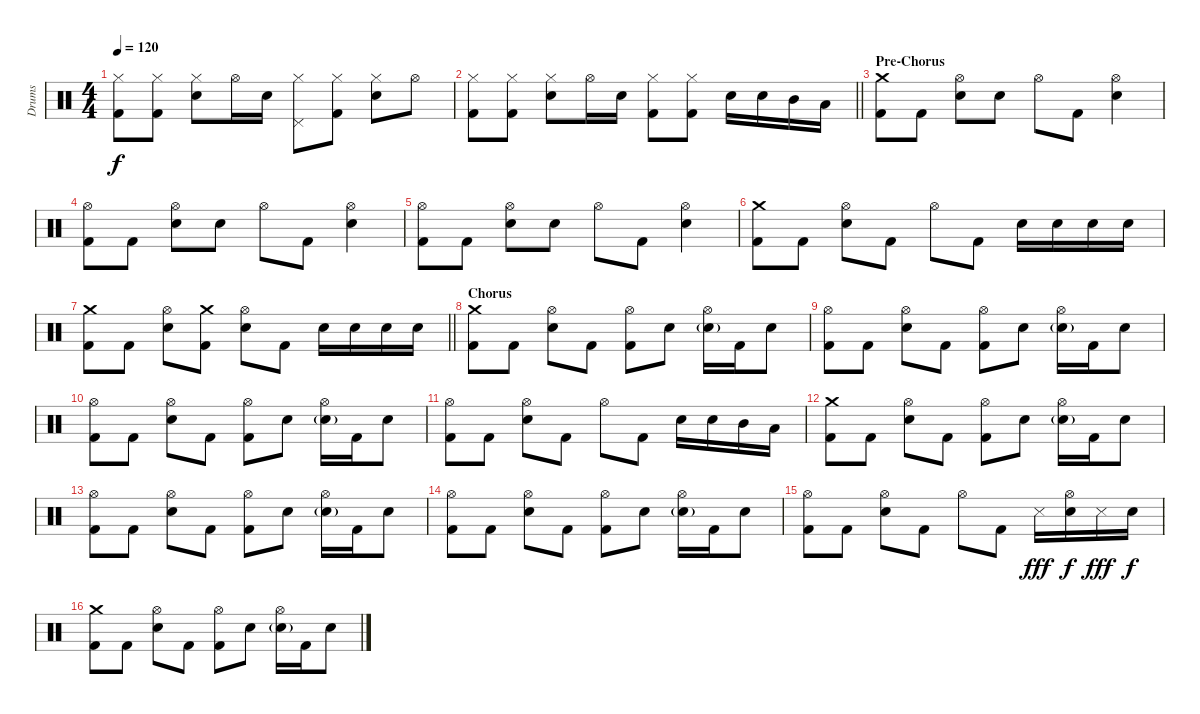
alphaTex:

\track ("Drums" "Drums") {instrument percussion}
\staff {score}
\articulation defaults
\ts (4 4)
\tempo 120
\clef neutral
\ks c
("Hi-Hat (closed)" "Kick (hit) 2").8{dy f} ("Hi-Hat (closed)" "Kick (hit) 2").8 ("Hi-Hat (closed)" "Electric Snare (hit)").8 "Hi-Hat (open)".16 "Electric Snare (hit)".16 ("Hi-Hat (closed)" "Pedal Hi-Hat (hit)").8 ("Hi-Hat (closed)" "Kick (hit) 2").8 ("Hi-Hat (closed)" "Electric Snare (hit)").8 "Hi-Hat (open)".8 |
\barLineRight lightlight
("Hi-Hat (closed)" "Kick (hit) 2").8 ("Hi-Hat (closed)" "Kick (hit) 2").8 ("Hi-Hat (closed)" "Electric Snare (hit)").8 "Hi-Hat (open)".16 "Electric Snare (hit)".16 ("Hi-Hat (closed)" "Kick (hit) 2").8 ("Hi-Hat (closed)" "Kick (hit) 2").8 "Electric Snare (hit)".16 "Electric Snare (hit)".16 "Mid Tom (hit)".16 "Low Tom (hit)".16 |
\section ("" "Pre-Chorus")
("Crash medium (hit)" "Kick (hit) 2").8 "Kick (hit) 2".8 ("Hi-Hat (open)" "Electric Snare (hit)").8 "Electric Snare (hit)".8 "Hi-Hat (open)".8 "Kick (hit) 2".8 ("Hi-Hat (open)" "Electric Snare (hit)").4 |
("Hi-Hat (open)" "Kick (hit) 2").8 "Kick (hit) 2".8 ("Hi-Hat (open)" "Electric Snare (hit)").8 "Electric Snare (hit)".8 "Hi-Hat (open)".8 "Kick (hit) 2".8 ("Hi-Hat (open)" "Electric Snare (hit)").4 |
("Hi-Hat (open)" "Kick (hit) 2").8 "Kick (hit) 2".8 ("Hi-Hat (open)" "Electric Snare (hit)").8 "Electric Snare (hit)".8 "Hi-Hat (open)".8 "Kick (hit) 2".8 ("Hi-Hat (open)" "Electric Snare (hit)").4 |
("Crash medium (hit)" "Kick (hit) 2").8 "Kick (hit) 2".8 ("Hi-Hat (open)" "Electric Snare (hit)").8 "Kick (hit) 2".8 "Hi-Hat (open)".8 "Kick (hit) 2".8 "Electric Snare (hit)".16 "Electric Snare (hit)".16 "Electric Snare (hit)".16 "Electric Snare (hit)".16 |
\barLineRight lightlight
("Crash medium (hit)" "Kick (hit) 2").8 "Kick (hit) 2".8 ("Hi-Hat (open)" "Electric Snare (hit)").8 ("Crash medium (hit)" "Kick (hit) 2").8 ("Hi-Hat (open)" "Electric Snare (hit)").8 "Kick (hit) 2".8 "Electric Snare (hit)".16 "Electric Snare (hit)".16 "Electric Snare (hit)".16 "Electric Snare (hit)".16 |
\section ("" "Chorus")
("Crash medium (hit)" "Kick (hit) 2").8 "Kick (hit) 2".8 ("Hi-Hat (open)" "Electric Snare (hit)").8 "Kick (hit) 2".8 ("Hi-Hat (open)" "Kick (hit) 2").8 "Electric Snare (hit)".8 ("Hi-Hat (open)" "Electric Snare (hit)"{g}).16 "Kick (hit) 2".16 "Electric Snare (hit)".8 |
("Hi-Hat (open)" "Kick (hit) 2").8 "Kick (hit) 2".8 ("Hi-Hat (open)" "Electric Snare (hit)").8 "Kick (hit) 2".8 ("Hi-Hat (open)" "Kick (hit) 2").8 "Electric Snare (hit)".8 ("Hi-Hat (open)" "Electric Snare (hit)"{g}).16 "Kick (hit) 2".16 "Electric Snare (hit)".8 |
("Hi-Hat (open)" "Kick (hit) 2").8 "Kick (hit) 2".8 ("Hi-Hat (open)" "Electric Snare (hit)").8 "Kick (hit) 2".8 ("Hi-Hat (open)" "Kick (hit) 2").8 "Electric Snare (hit)".8 ("Hi-Hat (open)" "Electric Snare (hit)"{g}).16 "Kick (hit) 2".16 "Electric Snare (hit)".8 |
("Hi-Hat (open)" "Kick (hit) 2").8 "Kick (hit) 2".8 ("Hi-Hat (open)" "Electric Snare (hit)").8 "Kick (hit) 2".8 "Hi-Hat (open)".8 "Kick (hit) 2".8 "Electric Snare (hit)".16 "Electric Snare (hit)".16 "Mid Tom (hit)".16 "Low Tom (hit)".16 |
("Crash medium (hit)" "Kick (hit) 2").8 "Kick (hit) 2".8 ("Hi-Hat (open)" "Electric Snare (hit)").8 "Kick (hit) 2".8 ("Hi-Hat (open)" "Kick (hit) 2").8 "Electric Snare (hit)".8 ("Hi-Hat (open)" "Electric Snare (hit)"{g}).16 "Kick (hit) 2".16 "Electric Snare (hit)".8 |
("Hi-Hat (open)" "Kick (hit) 2").8 "Kick (hit) 2".8 ("Hi-Hat (open)" "Electric Snare (hit)").8 "Kick (hit) 2".8 ("Hi-Hat (open)" "Kick (hit) 2").8 "Electric Snare (hit)".8 ("Hi-Hat (open)" "Electric Snare (hit)"{g}).16 "Kick (hit) 2".16 "Electric Snare (hit)".8 |
("Hi-Hat (open)" "Kick (hit) 2").8 "Kick (hit) 2".8 ("Hi-Hat (open)" "Electric Snare (hit)").8 "Kick (hit) 2".8 ("Hi-Hat (open)" "Kick (hit) 2").8 "Electric Snare (hit)".8 ("Hi-Hat (open)" "Electric Snare (hit)"{g}).16 "Kick (hit) 2".16 "Electric Snare (hit)".8 |
("Hi-Hat (open)" "Kick (hit) 2").8 "Kick (hit) 2".8 ("Hi-Hat (open)" "Electric Snare (hit)").8 "Kick (hit) 2".8 "Hi-Hat (open)".8 "Kick (hit) 2".8 "Snare (side stick) 3".16{dy fff} ("Hi-Hat (open)" "Electric Snare (hit)").16{dy f} "Snare (side stick) 3".16{dy fff} "Electric Snare (hit)".16{dy f} |
("Crash medium (hit)" "Kick (hit) 2").8 "Kick (hit) 2".8 ("Hi-Hat (open)" "Electric Snare (hit)").8 "Kick (hit) 2".8 ("Hi-Hat (open)" "Kick (hit) 2").8 "Electric Snare (hit)".8 ("Hi-Hat (open)" "Electric Snare (hit)"{g}).16 "Kick (hit) 2".16 "Electric Snare (hit)".8
